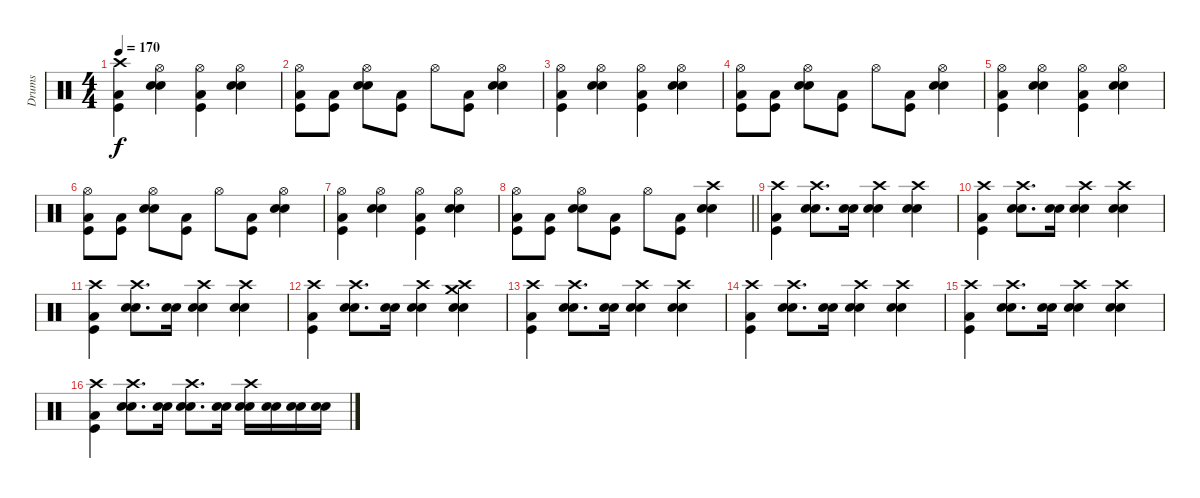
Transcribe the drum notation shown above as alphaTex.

\track ("Drums" "Drums") {instrument percussion}
\staff {score}
\articulation defaults
\ts (4 4)
\tempo 170
\clef neutral
\ks c
("Crash high (hit)" "Kick (hit)" "Low Tom (hit)").4{dy f} ("Hi-Hat (open)" "Snare (hit) 2" "Electric Snare (hit)").4 ("Hi-Hat (open)" "Kick (hit)" "Low Tom (hit)").4 ("Hi-Hat (open)" "Snare (hit) 2" "Electric Snare (hit)").4 |
("Hi-Hat (open)" "Kick (hit)" "Low Tom (hit)").8 ("Kick (hit)" "Low Tom (hit)").8 ("Hi-Hat (open)" "Snare (hit) 2" "Electric Snare (hit)").8 ("Kick (hit)" "Low Tom (hit)").8 "Hi-Hat (open)".8 ("Kick (hit)" "Low Tom (hit)").8 ("Hi-Hat (open)" "Snare (hit) 2" "Electric Snare (hit)").4 |
("Hi-Hat (open)" "Kick (hit)" "Low Tom (hit)").4 ("Hi-Hat (open)" "Snare (hit) 2" "Electric Snare (hit)").4 ("Hi-Hat (open)" "Kick (hit)" "Low Tom (hit)").4 ("Hi-Hat (open)" "Snare (hit) 2" "Electric Snare (hit)").4 |
("Hi-Hat (open)" "Kick (hit)" "Low Tom (hit)").8 ("Kick (hit)" "Low Tom (hit)").8 ("Hi-Hat (open)" "Snare (hit) 2" "Electric Snare (hit)").8 ("Kick (hit)" "Low Tom (hit)").8 "Hi-Hat (open)".8 ("Kick (hit)" "Low Tom (hit)").8 ("Hi-Hat (open)" "Snare (hit) 2" "Electric Snare (hit)").4 |
("Hi-Hat (open)" "Kick (hit)" "Low Tom (hit)").4 ("Hi-Hat (open)" "Snare (hit) 2" "Electric Snare (hit)").4 ("Hi-Hat (open)" "Kick (hit)" "Low Tom (hit)").4 ("Hi-Hat (open)" "Snare (hit) 2" "Electric Snare (hit)").4 |
("Hi-Hat (open)" "Kick (hit)" "Low Tom (hit)").8 ("Kick (hit)" "Low Tom (hit)").8 ("Hi-Hat (open)" "Snare (hit) 2" "Electric Snare (hit)").8 ("Kick (hit)" "Low Tom (hit)").8 "Hi-Hat (open)".8 ("Kick (hit)" "Low Tom (hit)").8 ("Hi-Hat (open)" "Snare (hit) 2" "Electric Snare (hit)").4 |
("Hi-Hat (open)" "Kick (hit)" "Low Tom (hit)").4 ("Hi-Hat (open)" "Snare (hit) 2" "Electric Snare (hit)").4 ("Hi-Hat (open)" "Kick (hit)" "Low Tom (hit)").4 ("Hi-Hat (open)" "Snare (hit) 2" "Electric Snare (hit)").4 |
\barLineRight lightlight
("Hi-Hat (open)" "Kick (hit)" "Low Tom (hit)").8 ("Kick (hit)" "Low Tom (hit)").8 ("Hi-Hat (open)" "Snare (hit) 2" "Electric Snare (hit)").8 ("Kick (hit)" "Low Tom (hit)").8 "Hi-Hat (open)".8 ("Kick (hit)" "Low Tom (hit)").8 ("Crash high (hit)" "Snare (hit) 2" "Electric Snare (hit)").4 |
("Crash high (hit)" "Low Tom (hit)" "Kick (hit)").4 ("Crash high (hit)" "Snare (hit) 2" "Electric Snare (hit)").8{d} ("Snare (hit) 2" "Electric Snare (hit)").16 ("Crash high (hit)" "Snare (hit) 2" "Electric Snare (hit)").4 ("Crash high (hit)" "Snare (hit) 2" "Electric Snare (hit)").4 |
("Crash high (hit)" "Low Tom (hit)" "Kick (hit)").4 ("Crash high (hit)" "Snare (hit) 2" "Electric Snare (hit)").8{d} ("Snare (hit) 2" "Electric Snare (hit)").16 ("Crash high (hit)" "Snare (hit) 2" "Electric Snare (hit)").4 ("Crash high (hit)" "Snare (hit) 2" "Electric Snare (hit)").4 |
("Crash high (hit)" "Low Tom (hit)" "Kick (hit)").4 ("Crash high (hit)" "Snare (hit) 2" "Electric Snare (hit)").8{d} ("Snare (hit) 2" "Electric Snare (hit)").16 ("Crash high (hit)" "Snare (hit) 2" "Electric Snare (hit)").4 ("Crash high (hit)" "Snare (hit) 2" "Electric Snare (hit)").4 |
("Crash high (hit)" "Low Tom (hit)" "Kick (hit)").4 ("Crash high (hit)" "Snare (hit) 2" "Electric Snare (hit)").8{d} ("Snare (hit) 2" "Electric Snare (hit)").16 ("Crash high (hit)" "Snare (hit) 2" "Electric Snare (hit)").4 ("Crash high (hit)" "Crash medium (hit)" "Snare (hit) 2" "Electric Snare (hit)").4 |
("Crash high (hit)" "Low Tom (hit)" "Kick (hit)").4 ("Crash high (hit)" "Snare (hit) 2" "Electric Snare (hit)").8{d} ("Snare (hit) 2" "Electric Snare (hit)").16 ("Crash high (hit)" "Snare (hit) 2" "Electric Snare (hit)").4 ("Crash high (hit)" "Snare (hit) 2" "Electric Snare (hit)").4 |
("Crash high (hit)" "Low Tom (hit)" "Kick (hit)").4 ("Crash high (hit)" "Snare (hit) 2" "Electric Snare (hit)").8{d} ("Snare (hit) 2" "Electric Snare (hit)").16 ("Crash high (hit)" "Snare (hit) 2" "Electric Snare (hit)").4 ("Crash high (hit)" "Snare (hit) 2" "Electric Snare (hit)").4 |
("Crash high (hit)" "Low Tom (hit)" "Kick (hit)").4 ("Crash high (hit)" "Snare (hit) 2" "Electric Snare (hit)").8{d} ("Snare (hit) 2" "Electric Snare (hit)").16 ("Crash high (hit)" "Snare (hit) 2" "Electric Snare (hit)").4 ("Crash high (hit)" "Snare (hit) 2" "Electric Snare (hit)").4 |
("Crash high (hit)" "Low Tom (hit)" "Kick (hit)").4 ("Crash high (hit)" "Snare (hit) 2" "Electric Snare (hit)").8{d} ("Snare (hit) 2" "Electric Snare (hit)").16 ("Crash high (hit)" "Snare (hit) 2" "Electric Snare (hit)").8{d} ("Snare (hit) 2" "Electric Snare (hit)").16 ("Crash high (hit)" "Snare (hit) 2" "Electric Snare (hit)").16 ("Snare (hit) 2" "Electric Snare (hit)").16 ("Snare (hit) 2" "Electric Snare (hit)").16 ("Snare (hit) 2" "Electric Snare (hit)").16
